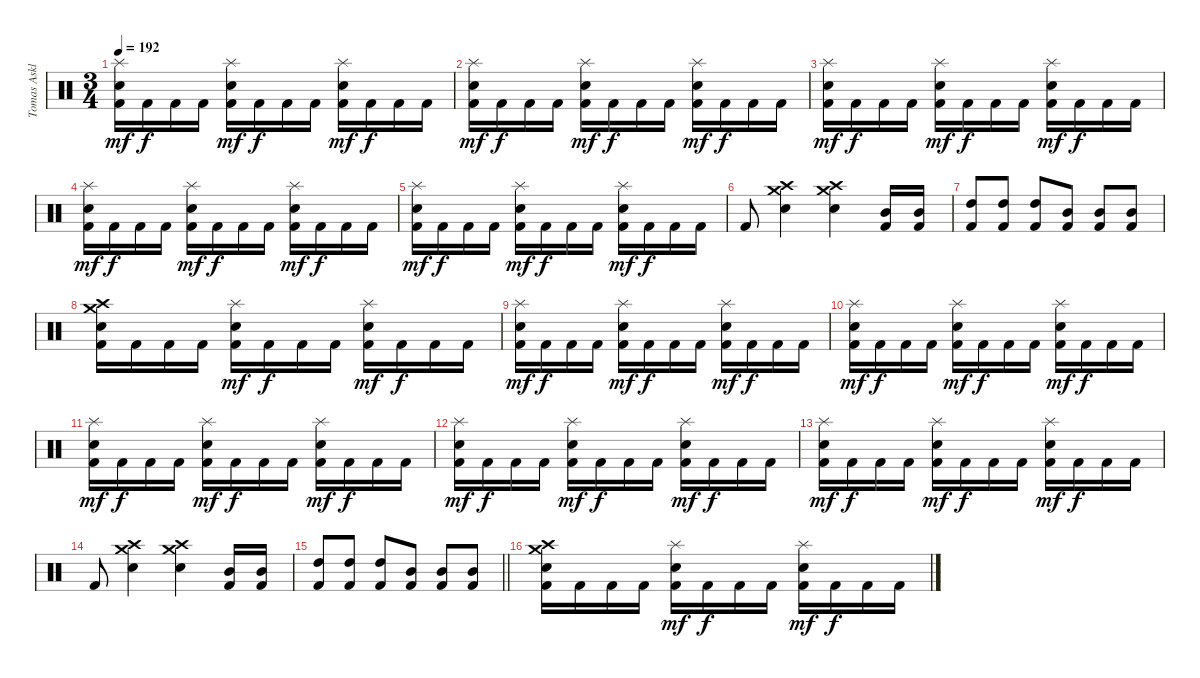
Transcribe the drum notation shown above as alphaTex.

\track ("Tomas Asklund" "Tomas Askl") {instrument percussion}
\staff {score}
\articulation defaults
\ts (3 4)
\tempo 192
\clef neutral
\ks c
("Splash (hit)" "Snare (hit) 2" "Kick (hit) 2").16{dy mf} "Kick (hit) 2".16{dy f} "Kick (hit) 2".16 "Kick (hit) 2".16 ("Splash (hit)" "Snare (hit) 2" "Kick (hit) 2").16{dy mf} "Kick (hit) 2".16{dy f} "Kick (hit) 2".16 "Kick (hit) 2".16 ("Splash (hit)" "Snare (hit) 2" "Kick (hit) 2").16{dy mf} "Kick (hit) 2".16{dy f} "Kick (hit) 2".16 "Kick (hit) 2".16 |
("Splash (hit)" "Snare (hit) 2" "Kick (hit) 2").16{dy mf} "Kick (hit) 2".16{dy f} "Kick (hit) 2".16 "Kick (hit) 2".16 ("Splash (hit)" "Snare (hit) 2" "Kick (hit) 2").16{dy mf} "Kick (hit) 2".16{dy f} "Kick (hit) 2".16 "Kick (hit) 2".16 ("Splash (hit)" "Snare (hit) 2" "Kick (hit) 2").16{dy mf} "Kick (hit) 2".16{dy f} "Kick (hit) 2".16 "Kick (hit) 2".16 |
("Splash (hit)" "Snare (hit) 2" "Kick (hit) 2").16{dy mf} "Kick (hit) 2".16{dy f} "Kick (hit) 2".16 "Kick (hit) 2".16 ("Splash (hit)" "Snare (hit) 2" "Kick (hit) 2").16{dy mf} "Kick (hit) 2".16{dy f} "Kick (hit) 2".16 "Kick (hit) 2".16 ("Splash (hit)" "Snare (hit) 2" "Kick (hit) 2").16{dy mf} "Kick (hit) 2".16{dy f} "Kick (hit) 2".16 "Kick (hit) 2".16 |
("Splash (hit)" "Snare (hit) 2" "Kick (hit) 2").16{dy mf} "Kick (hit) 2".16{dy f} "Kick (hit) 2".16 "Kick (hit) 2".16 ("Splash (hit)" "Snare (hit) 2" "Kick (hit) 2").16{dy mf} "Kick (hit) 2".16{dy f} "Kick (hit) 2".16 "Kick (hit) 2".16 ("Splash (hit)" "Snare (hit) 2" "Kick (hit) 2").16{dy mf} "Kick (hit) 2".16{dy f} "Kick (hit) 2".16 "Kick (hit) 2".16 |
("Splash (hit)" "Snare (hit) 2" "Kick (hit) 2").16{dy mf} "Kick (hit) 2".16{dy f} "Kick (hit) 2".16 "Kick (hit) 2".16 ("Splash (hit)" "Snare (hit) 2" "Kick (hit) 2").16{dy mf} "Kick (hit) 2".16{dy f} "Kick (hit) 2".16 "Kick (hit) 2".16 ("Splash (hit)" "Snare (hit) 2" "Kick (hit) 2").16{dy mf} "Kick (hit) 2".16{dy f} "Kick (hit) 2".16 "Kick (hit) 2".16 |
"Kick (hit) 2".8 ("Crash high (hit)" "Crash medium (hit)" "Snare (hit) 2").4 ("Crash high (hit)" "Crash medium (hit)" "Snare (hit) 2").4 ("Mid Tom (hit)" "Kick (hit) 2").16 ("Mid Tom (hit)" "Kick (hit) 2").16 |
("High Tom (hit)" "Kick (hit) 2").8 ("High Tom (hit)" "Kick (hit) 2").8 ("High Tom (hit)" "Kick (hit) 2").8 ("Mid Tom (hit)" "Kick (hit) 2").8 ("Mid Tom (hit)" "Kick (hit) 2").8 ("Mid Tom (hit)" "Kick (hit) 2").8 |
("Crash high (hit)" "Crash medium (hit)" "Snare (hit) 2" "Kick (hit) 2").16 "Kick (hit) 2".16 "Kick (hit) 2".16 "Kick (hit) 2".16 ("Splash (hit)" "Snare (hit) 2" "Kick (hit) 2").16{dy mf} "Kick (hit) 2".16{dy f} "Kick (hit) 2".16 "Kick (hit) 2".16 ("Splash (hit)" "Snare (hit) 2" "Kick (hit) 2").16{dy mf} "Kick (hit) 2".16{dy f} "Kick (hit) 2".16 "Kick (hit) 2".16 |
("Splash (hit)" "Snare (hit) 2" "Kick (hit) 2").16{dy mf} "Kick (hit) 2".16{dy f} "Kick (hit) 2".16 "Kick (hit) 2".16 ("Splash (hit)" "Snare (hit) 2" "Kick (hit) 2").16{dy mf} "Kick (hit) 2".16{dy f} "Kick (hit) 2".16 "Kick (hit) 2".16 ("Splash (hit)" "Snare (hit) 2" "Kick (hit) 2").16{dy mf} "Kick (hit) 2".16{dy f} "Kick (hit) 2".16 "Kick (hit) 2".16 |
("Splash (hit)" "Snare (hit) 2" "Kick (hit) 2").16{dy mf} "Kick (hit) 2".16{dy f} "Kick (hit) 2".16 "Kick (hit) 2".16 ("Splash (hit)" "Snare (hit) 2" "Kick (hit) 2").16{dy mf} "Kick (hit) 2".16{dy f} "Kick (hit) 2".16 "Kick (hit) 2".16 ("Splash (hit)" "Snare (hit) 2" "Kick (hit) 2").16{dy mf} "Kick (hit) 2".16{dy f} "Kick (hit) 2".16 "Kick (hit) 2".16 |
("Splash (hit)" "Snare (hit) 2" "Kick (hit) 2").16{dy mf} "Kick (hit) 2".16{dy f} "Kick (hit) 2".16 "Kick (hit) 2".16 ("Splash (hit)" "Snare (hit) 2" "Kick (hit) 2").16{dy mf} "Kick (hit) 2".16{dy f} "Kick (hit) 2".16 "Kick (hit) 2".16 ("Splash (hit)" "Snare (hit) 2" "Kick (hit) 2").16{dy mf} "Kick (hit) 2".16{dy f} "Kick (hit) 2".16 "Kick (hit) 2".16 |
("Splash (hit)" "Snare (hit) 2" "Kick (hit) 2").16{dy mf} "Kick (hit) 2".16{dy f} "Kick (hit) 2".16 "Kick (hit) 2".16 ("Splash (hit)" "Snare (hit) 2" "Kick (hit) 2").16{dy mf} "Kick (hit) 2".16{dy f} "Kick (hit) 2".16 "Kick (hit) 2".16 ("Splash (hit)" "Snare (hit) 2" "Kick (hit) 2").16{dy mf} "Kick (hit) 2".16{dy f} "Kick (hit) 2".16 "Kick (hit) 2".16 |
("Splash (hit)" "Snare (hit) 2" "Kick (hit) 2").16{dy mf} "Kick (hit) 2".16{dy f} "Kick (hit) 2".16 "Kick (hit) 2".16 ("Splash (hit)" "Snare (hit) 2" "Kick (hit) 2").16{dy mf} "Kick (hit) 2".16{dy f} "Kick (hit) 2".16 "Kick (hit) 2".16 ("Splash (hit)" "Snare (hit) 2" "Kick (hit) 2").16{dy mf} "Kick (hit) 2".16{dy f} "Kick (hit) 2".16 "Kick (hit) 2".16 |
"Kick (hit) 2".8 ("Crash high (hit)" "Crash medium (hit)" "Snare (hit) 2").4 ("Crash high (hit)" "Crash medium (hit)" "Snare (hit) 2").4 ("Mid Tom (hit)" "Kick (hit) 2").16 ("Mid Tom (hit)" "Kick (hit) 2").16 |
\barLineRight lightlight
("High Tom (hit)" "Kick (hit) 2").8 ("High Tom (hit)" "Kick (hit) 2").8 ("High Tom (hit)" "Kick (hit) 2").8 ("Mid Tom (hit)" "Kick (hit) 2").8 ("Mid Tom (hit)" "Kick (hit) 2").8 ("Mid Tom (hit)" "Kick (hit) 2").8 |
("Crash high (hit)" "Crash medium (hit)" "Snare (hit) 2" "Kick (hit) 2").16 "Kick (hit) 2".16 "Kick (hit) 2".16 "Kick (hit) 2".16 ("Splash (hit)" "Snare (hit) 2" "Kick (hit) 2").16{dy mf} "Kick (hit) 2".16{dy f} "Kick (hit) 2".16 "Kick (hit) 2".16 ("Splash (hit)" "Snare (hit) 2" "Kick (hit) 2").16{dy mf} "Kick (hit) 2".16{dy f} "Kick (hit) 2".16 "Kick (hit) 2".16
